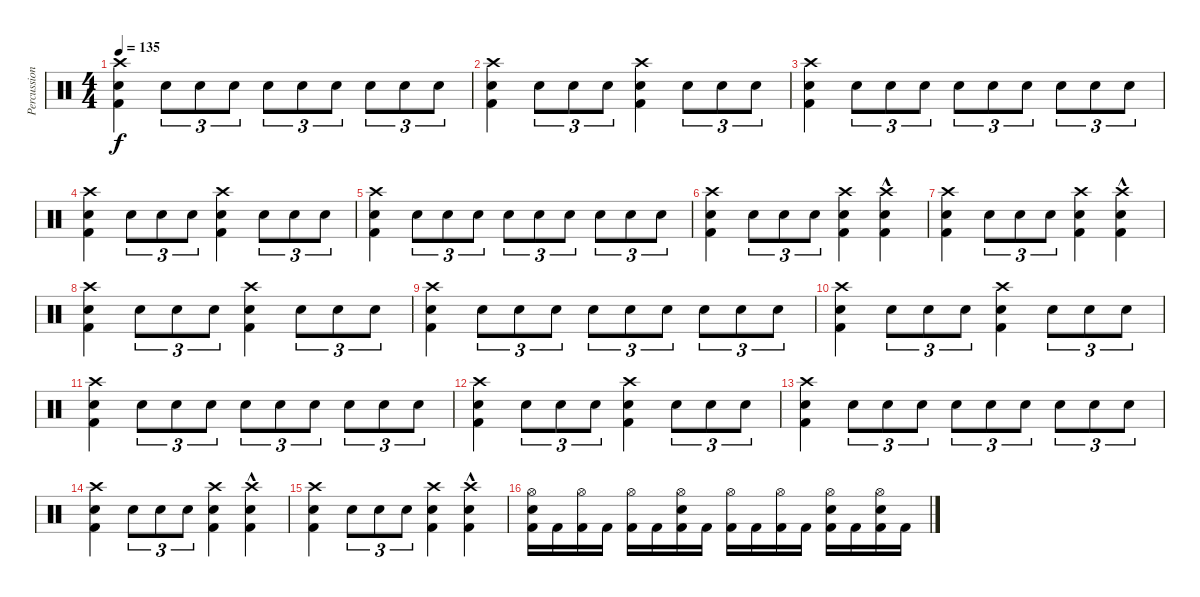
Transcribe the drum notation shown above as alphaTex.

\track ("Percussion" "Percussion") {instrument percussion}
\staff {score}
\articulation defaults
\ts (4 4)
\tempo 135
\clef neutral
\ks c
("Kick (hit) 2" "Electric Snare (hit)" "Crash high (hit)").4{dy f} "Electric Snare (hit)".8{tu (3 2)} "Electric Snare (hit)".8{tu (3 2)} "Electric Snare (hit)".8{tu (3 2)} "Electric Snare (hit)".8{tu (3 2)} "Electric Snare (hit)".8{tu (3 2)} "Electric Snare (hit)".8{tu (3 2)} "Electric Snare (hit)".8{tu (3 2)} "Electric Snare (hit)".8{tu (3 2)} "Electric Snare (hit)".8{tu (3 2)} |
("Kick (hit) 2" "Electric Snare (hit)" "Crash high (hit)").4 "Electric Snare (hit)".8{tu (3 2)} "Electric Snare (hit)".8{tu (3 2)} "Electric Snare (hit)".8{tu (3 2)} ("Kick (hit) 2" "Electric Snare (hit)" "Crash high (hit)").4 "Electric Snare (hit)".8{tu (3 2)} "Electric Snare (hit)".8{tu (3 2)} "Electric Snare (hit)".8{tu (3 2)} |
("Kick (hit) 2" "Electric Snare (hit)" "Crash high (hit)").4 "Electric Snare (hit)".8{tu (3 2)} "Electric Snare (hit)".8{tu (3 2)} "Electric Snare (hit)".8{tu (3 2)} "Electric Snare (hit)".8{tu (3 2)} "Electric Snare (hit)".8{tu (3 2)} "Electric Snare (hit)".8{tu (3 2)} "Electric Snare (hit)".8{tu (3 2)} "Electric Snare (hit)".8{tu (3 2)} "Electric Snare (hit)".8{tu (3 2)} |
("Kick (hit) 2" "Electric Snare (hit)" "Crash high (hit)").4 "Electric Snare (hit)".8{tu (3 2)} "Electric Snare (hit)".8{tu (3 2)} "Electric Snare (hit)".8{tu (3 2)} ("Kick (hit) 2" "Electric Snare (hit)" "Crash high (hit)").4 "Electric Snare (hit)".8{tu (3 2)} "Electric Snare (hit)".8{tu (3 2)} "Electric Snare (hit)".8{tu (3 2)} |
("Kick (hit) 2" "Electric Snare (hit)" "Crash high (hit)").4 "Electric Snare (hit)".8{tu (3 2)} "Electric Snare (hit)".8{tu (3 2)} "Electric Snare (hit)".8{tu (3 2)} "Electric Snare (hit)".8{tu (3 2)} "Electric Snare (hit)".8{tu (3 2)} "Electric Snare (hit)".8{tu (3 2)} "Electric Snare (hit)".8{tu (3 2)} "Electric Snare (hit)".8{tu (3 2)} "Electric Snare (hit)".8{tu (3 2)} |
("Kick (hit) 2" "Electric Snare (hit)" "Crash high (hit)").4 "Electric Snare (hit)".8{tu (3 2)} "Electric Snare (hit)".8{tu (3 2)} "Electric Snare (hit)".8{tu (3 2)} ("Kick (hit) 2" "Electric Snare (hit)" "Crash high (hit)").4 ("Kick (hit) 2"{hac} "Electric Snare (hit)"{hac} "Crash high (hit)").4 |
("Kick (hit) 2" "Electric Snare (hit)" "Crash high (hit)").4 "Electric Snare (hit)".8{tu (3 2)} "Electric Snare (hit)".8{tu (3 2)} "Electric Snare (hit)".8{tu (3 2)} ("Kick (hit) 2" "Electric Snare (hit)" "Crash high (hit)").4 ("Kick (hit) 2"{hac} "Electric Snare (hit)"{hac} "Crash high (hit)").4 |
("Kick (hit) 2" "Electric Snare (hit)" "Crash high (hit)").4 "Electric Snare (hit)".8{tu (3 2)} "Electric Snare (hit)".8{tu (3 2)} "Electric Snare (hit)".8{tu (3 2)} ("Kick (hit) 2" "Electric Snare (hit)" "Crash high (hit)").4 "Electric Snare (hit)".8{tu (3 2)} "Electric Snare (hit)".8{tu (3 2)} "Electric Snare (hit)".8{tu (3 2)} |
("Kick (hit) 2" "Electric Snare (hit)" "Crash high (hit)").4 "Electric Snare (hit)".8{tu (3 2)} "Electric Snare (hit)".8{tu (3 2)} "Electric Snare (hit)".8{tu (3 2)} "Electric Snare (hit)".8{tu (3 2)} "Electric Snare (hit)".8{tu (3 2)} "Electric Snare (hit)".8{tu (3 2)} "Electric Snare (hit)".8{tu (3 2)} "Electric Snare (hit)".8{tu (3 2)} "Electric Snare (hit)".8{tu (3 2)} |
("Kick (hit) 2" "Electric Snare (hit)" "Crash high (hit)").4 "Electric Snare (hit)".8{tu (3 2)} "Electric Snare (hit)".8{tu (3 2)} "Electric Snare (hit)".8{tu (3 2)} ("Kick (hit) 2" "Electric Snare (hit)" "Crash high (hit)").4 "Electric Snare (hit)".8{tu (3 2)} "Electric Snare (hit)".8{tu (3 2)} "Electric Snare (hit)".8{tu (3 2)} |
("Kick (hit) 2" "Electric Snare (hit)" "Crash high (hit)").4 "Electric Snare (hit)".8{tu (3 2)} "Electric Snare (hit)".8{tu (3 2)} "Electric Snare (hit)".8{tu (3 2)} "Electric Snare (hit)".8{tu (3 2)} "Electric Snare (hit)".8{tu (3 2)} "Electric Snare (hit)".8{tu (3 2)} "Electric Snare (hit)".8{tu (3 2)} "Electric Snare (hit)".8{tu (3 2)} "Electric Snare (hit)".8{tu (3 2)} |
("Kick (hit) 2" "Electric Snare (hit)" "Crash high (hit)").4 "Electric Snare (hit)".8{tu (3 2)} "Electric Snare (hit)".8{tu (3 2)} "Electric Snare (hit)".8{tu (3 2)} ("Kick (hit) 2" "Electric Snare (hit)" "Crash high (hit)").4 "Electric Snare (hit)".8{tu (3 2)} "Electric Snare (hit)".8{tu (3 2)} "Electric Snare (hit)".8{tu (3 2)} |
("Kick (hit) 2" "Electric Snare (hit)" "Crash high (hit)").4 "Electric Snare (hit)".8{tu (3 2)} "Electric Snare (hit)".8{tu (3 2)} "Electric Snare (hit)".8{tu (3 2)} "Electric Snare (hit)".8{tu (3 2)} "Electric Snare (hit)".8{tu (3 2)} "Electric Snare (hit)".8{tu (3 2)} "Electric Snare (hit)".8{tu (3 2)} "Electric Snare (hit)".8{tu (3 2)} "Electric Snare (hit)".8{tu (3 2)} |
("Kick (hit) 2" "Electric Snare (hit)" "Crash high (hit)").4 "Electric Snare (hit)".8{tu (3 2)} "Electric Snare (hit)".8{tu (3 2)} "Electric Snare (hit)".8{tu (3 2)} ("Kick (hit) 2" "Electric Snare (hit)" "Crash high (hit)").4 ("Kick (hit) 2"{hac} "Electric Snare (hit)"{hac} "Crash high (hit)").4 |
("Kick (hit) 2" "Electric Snare (hit)" "Crash high (hit)").4 "Electric Snare (hit)".8{tu (3 2)} "Electric Snare (hit)".8{tu (3 2)} "Electric Snare (hit)".8{tu (3 2)} ("Kick (hit) 2" "Electric Snare (hit)" "Crash high (hit)").4 ("Kick (hit) 2"{hac} "Electric Snare (hit)"{hac} "Crash high (hit)").4 |
("Kick (hit) 2" "Electric Snare (hit)" "Hi-Hat (open)").16 "Kick (hit) 2".16 ("Kick (hit) 2" "Hi-Hat (open)").16 "Kick (hit) 2".16 ("Kick (hit) 2" "Hi-Hat (open)").16 "Kick (hit) 2".16 ("Kick (hit) 2" "Electric Snare (hit)" "Hi-Hat (open)").16 "Kick (hit) 2".16 ("Kick (hit) 2" "Hi-Hat (open)").16 "Kick (hit) 2".16 ("Kick (hit) 2" "Hi-Hat (open)").16 "Kick (hit) 2".16 ("Kick (hit) 2" "Electric Snare (hit)" "Hi-Hat (open)").16 "Kick (hit) 2".16 ("Kick (hit) 2" "Electric Snare (hit)" "Hi-Hat (open)").16 "Kick (hit) 2".16
